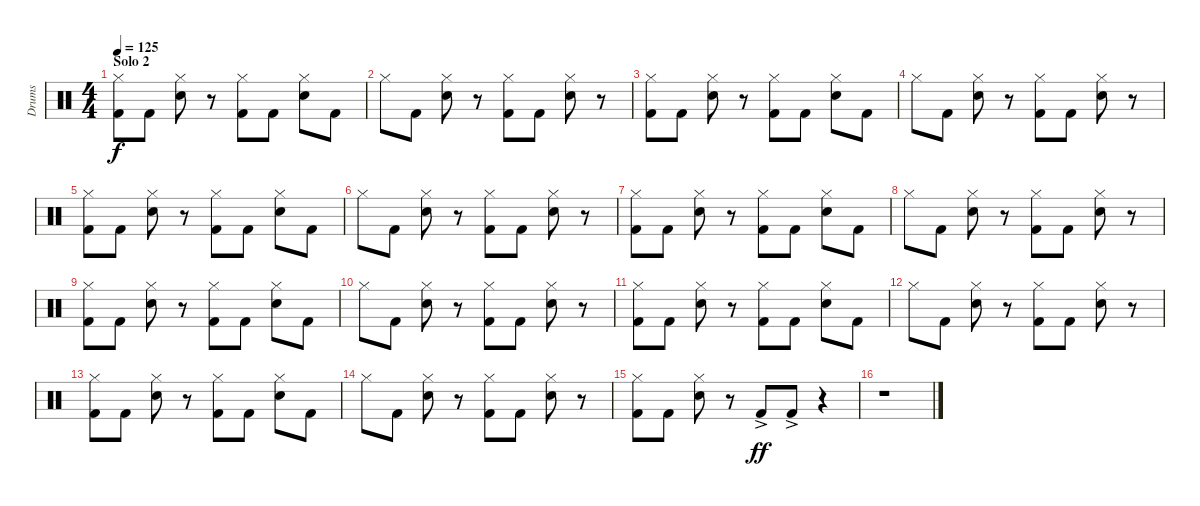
\track ("Drums" "Drums") {instrument percussion}
\staff {score}
\articulation defaults
\ts (4 4)
\section ("" "Solo 2")
\tempo 125
\clef neutral
\ks c
("Hi-Hat (closed)" "Kick (hit) 2").8{dy f} "Kick (hit) 2".8 ("Hi-Hat (closed)" "Snare (hit) 2").8 r.8 ("Hi-Hat (closed)" "Kick (hit) 2").8 "Kick (hit) 2".8 ("Hi-Hat (closed)" "Snare (hit) 2").8 "Kick (hit) 2".8 |
"Hi-Hat (closed)".8 "Kick (hit) 2".8 ("Hi-Hat (closed)" "Snare (hit) 2").8 r.8 ("Hi-Hat (closed)" "Kick (hit) 2").8 "Kick (hit) 2".8 ("Hi-Hat (closed)" "Snare (hit) 2").8 r.8 |
("Hi-Hat (closed)" "Kick (hit) 2").8 "Kick (hit) 2".8 ("Hi-Hat (closed)" "Snare (hit) 2").8 r.8 ("Hi-Hat (closed)" "Kick (hit) 2").8 "Kick (hit) 2".8 ("Hi-Hat (closed)" "Snare (hit) 2").8 "Kick (hit) 2".8 |
"Hi-Hat (closed)".8 "Kick (hit) 2".8 ("Hi-Hat (closed)" "Snare (hit) 2").8 r.8 ("Hi-Hat (closed)" "Kick (hit) 2").8 "Kick (hit) 2".8 ("Hi-Hat (closed)" "Snare (hit) 2").8 r.8 |
("Hi-Hat (closed)" "Kick (hit) 2").8 "Kick (hit) 2".8 ("Hi-Hat (closed)" "Snare (hit) 2").8 r.8 ("Hi-Hat (closed)" "Kick (hit) 2").8 "Kick (hit) 2".8 ("Hi-Hat (closed)" "Snare (hit) 2").8 "Kick (hit) 2".8 |
"Hi-Hat (closed)".8 "Kick (hit) 2".8 ("Hi-Hat (closed)" "Snare (hit) 2").8 r.8 ("Hi-Hat (closed)" "Kick (hit) 2").8 "Kick (hit) 2".8 ("Hi-Hat (closed)" "Snare (hit) 2").8 r.8 |
("Hi-Hat (closed)" "Kick (hit) 2").8 "Kick (hit) 2".8 ("Hi-Hat (closed)" "Snare (hit) 2").8 r.8 ("Hi-Hat (closed)" "Kick (hit) 2").8 "Kick (hit) 2".8 ("Hi-Hat (closed)" "Snare (hit) 2").8 "Kick (hit) 2".8 |
"Hi-Hat (closed)".8 "Kick (hit) 2".8 ("Hi-Hat (closed)" "Snare (hit) 2").8 r.8 ("Hi-Hat (closed)" "Kick (hit) 2").8 "Kick (hit) 2".8 ("Hi-Hat (closed)" "Snare (hit) 2").8 r.8 |
("Hi-Hat (closed)" "Kick (hit) 2").8 "Kick (hit) 2".8 ("Hi-Hat (closed)" "Snare (hit) 2").8 r.8 ("Hi-Hat (closed)" "Kick (hit) 2").8 "Kick (hit) 2".8 ("Hi-Hat (closed)" "Snare (hit) 2").8 "Kick (hit) 2".8 |
"Hi-Hat (closed)".8 "Kick (hit) 2".8 ("Hi-Hat (closed)" "Snare (hit) 2").8 r.8 ("Hi-Hat (closed)" "Kick (hit) 2").8 "Kick (hit) 2".8 ("Hi-Hat (closed)" "Snare (hit) 2").8 r.8 |
("Hi-Hat (closed)" "Kick (hit) 2").8 "Kick (hit) 2".8 ("Hi-Hat (closed)" "Snare (hit) 2").8 r.8 ("Hi-Hat (closed)" "Kick (hit) 2").8 "Kick (hit) 2".8 ("Hi-Hat (closed)" "Snare (hit) 2").8 "Kick (hit) 2".8 |
"Hi-Hat (closed)".8 "Kick (hit) 2".8 ("Hi-Hat (closed)" "Snare (hit) 2").8 r.8 ("Hi-Hat (closed)" "Kick (hit) 2").8 "Kick (hit) 2".8 ("Hi-Hat (closed)" "Snare (hit) 2").8 r.8 |
("Hi-Hat (closed)" "Kick (hit) 2").8 "Kick (hit) 2".8 ("Hi-Hat (closed)" "Snare (hit) 2").8 r.8 ("Hi-Hat (closed)" "Kick (hit) 2").8 "Kick (hit) 2".8 ("Hi-Hat (closed)" "Snare (hit) 2").8 "Kick (hit) 2".8 |
"Hi-Hat (closed)".8 "Kick (hit) 2".8 ("Hi-Hat (closed)" "Snare (hit) 2").8 r.8 ("Hi-Hat (closed)" "Kick (hit) 2").8 "Kick (hit) 2".8 ("Hi-Hat (closed)" "Snare (hit) 2").8 r.8 |
("Hi-Hat (closed)" "Kick (hit) 2").8 "Kick (hit) 2".8 ("Hi-Hat (closed)" "Snare (hit) 2").8 r.8 "Kick (hit) 2"{ac}.8{dy ff} "Kick (hit) 2"{ac}.8 r.4 |
r.1
